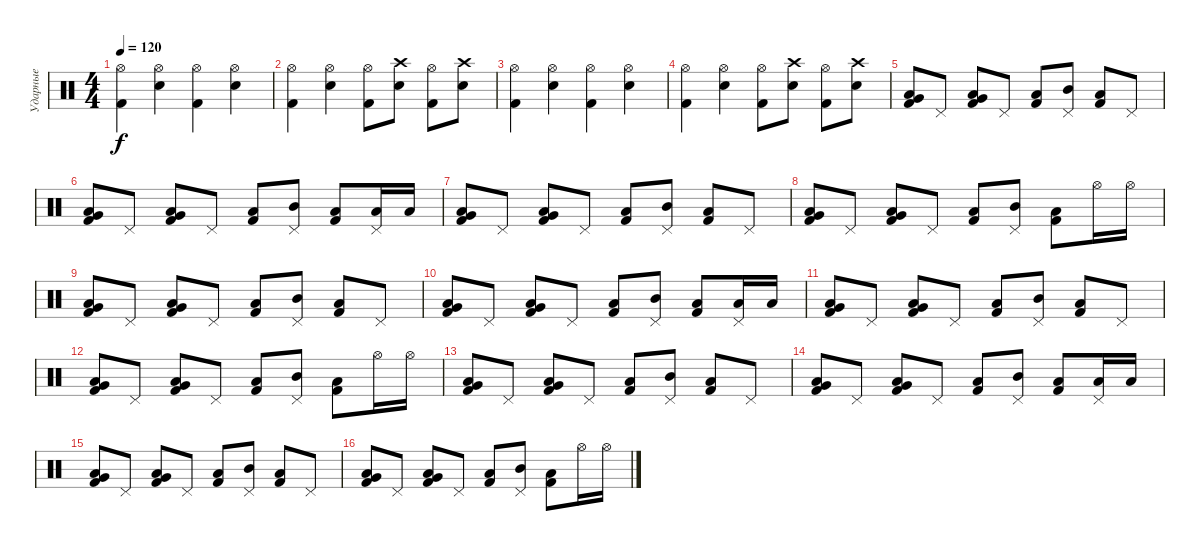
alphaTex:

\track ("Ударные" "Ударные") {instrument percussion}
\staff {score}
\articulation defaults
\ts (4 4)
\tempo 120
\clef neutral
\ks c
("Hi-Hat (open)" "Kick (hit) 2").4{dy f} ("Hi-Hat (open)" "Electric Snare (hit)").4 ("Hi-Hat (open)" "Kick (hit) 2").4 ("Hi-Hat (open)" "Electric Snare (hit)").4 |
("Hi-Hat (open)" "Kick (hit) 2").4 ("Hi-Hat (open)" "Electric Snare (hit)").4 ("Hi-Hat (open)" "Kick (hit) 2").8 ("Crash high (hit)" "Electric Snare (hit)").8 ("Hi-Hat (open)" "Kick (hit) 2").8 ("Crash high (hit)" "Electric Snare (hit)").8 |
("Hi-Hat (open)" "Kick (hit) 2").4 ("Hi-Hat (open)" "Electric Snare (hit)").4 ("Hi-Hat (open)" "Kick (hit) 2").4 ("Hi-Hat (open)" "Electric Snare (hit)").4 |
("Hi-Hat (open)" "Kick (hit) 2").4 ("Hi-Hat (open)" "Electric Snare (hit)").4 ("Hi-Hat (open)" "Kick (hit) 2").8 ("Crash high (hit)" "Electric Snare (hit)").8 ("Hi-Hat (open)" "Kick (hit) 2").8 ("Crash high (hit)" "Electric Snare (hit)").8 |
("Low Tom (hit)" "Very Low Tom (hit)" "Kick (hit) 2").8 "Pedal Hi-Hat (hit)".8 ("Low Tom (hit)" "Very Low Tom (hit)" "Kick (hit) 2").8 "Pedal Hi-Hat (hit)".8 ("Low Tom (hit)" "Kick (hit) 2").8 ("Pedal Hi-Hat (hit)" "Mid Tom (hit)").8 ("Low Tom (hit)" "Kick (hit) 2").8 "Pedal Hi-Hat (hit)".8 |
("Low Tom (hit)" "Very Low Tom (hit)" "Kick (hit) 2").8 "Pedal Hi-Hat (hit)".8 ("Low Tom (hit)" "Very Low Tom (hit)" "Kick (hit) 2").8 "Pedal Hi-Hat (hit)".8 ("Low Tom (hit)" "Kick (hit) 2").8 ("Pedal Hi-Hat (hit)" "Mid Tom (hit)").8 ("Low Tom (hit)" "Kick (hit) 2").8 ("Pedal Hi-Hat (hit)" "Low Tom (hit)").16 "Low Tom (hit)".16 |
("Low Tom (hit)" "Very Low Tom (hit)" "Kick (hit) 2").8 "Pedal Hi-Hat (hit)".8 ("Low Tom (hit)" "Very Low Tom (hit)" "Kick (hit) 2").8 "Pedal Hi-Hat (hit)".8 ("Low Tom (hit)" "Kick (hit) 2").8 ("Pedal Hi-Hat (hit)" "Mid Tom (hit)").8 ("Low Tom (hit)" "Kick (hit) 2").8 "Pedal Hi-Hat (hit)".8 |
("Low Tom (hit)" "Very Low Tom (hit)" "Kick (hit) 2").8 "Pedal Hi-Hat (hit)".8 ("Low Tom (hit)" "Very Low Tom (hit)" "Kick (hit) 2").8 "Pedal Hi-Hat (hit)".8 ("Low Tom (hit)" "Kick (hit) 2").8 ("Pedal Hi-Hat (hit)" "Mid Tom (hit)").8 ("Low Tom (hit)" "Kick (hit) 2").8 "Hi-Hat (open)".16 "Hi-Hat (open)".16 |
("Low Tom (hit)" "Very Low Tom (hit)" "Kick (hit) 2").8 "Pedal Hi-Hat (hit)".8 ("Low Tom (hit)" "Very Low Tom (hit)" "Kick (hit) 2").8 "Pedal Hi-Hat (hit)".8 ("Low Tom (hit)" "Kick (hit) 2").8 ("Pedal Hi-Hat (hit)" "Mid Tom (hit)").8 ("Low Tom (hit)" "Kick (hit) 2").8 "Pedal Hi-Hat (hit)".8 |
("Low Tom (hit)" "Very Low Tom (hit)" "Kick (hit) 2").8 "Pedal Hi-Hat (hit)".8 ("Low Tom (hit)" "Very Low Tom (hit)" "Kick (hit) 2").8 "Pedal Hi-Hat (hit)".8 ("Low Tom (hit)" "Kick (hit) 2").8 ("Pedal Hi-Hat (hit)" "Mid Tom (hit)").8 ("Low Tom (hit)" "Kick (hit) 2").8 ("Pedal Hi-Hat (hit)" "Low Tom (hit)").16 "Low Tom (hit)".16 |
("Low Tom (hit)" "Very Low Tom (hit)" "Kick (hit) 2").8 "Pedal Hi-Hat (hit)".8 ("Low Tom (hit)" "Very Low Tom (hit)" "Kick (hit) 2").8 "Pedal Hi-Hat (hit)".8 ("Low Tom (hit)" "Kick (hit) 2").8 ("Pedal Hi-Hat (hit)" "Mid Tom (hit)").8 ("Low Tom (hit)" "Kick (hit) 2").8 "Pedal Hi-Hat (hit)".8 |
("Low Tom (hit)" "Very Low Tom (hit)" "Kick (hit) 2").8 "Pedal Hi-Hat (hit)".8 ("Low Tom (hit)" "Very Low Tom (hit)" "Kick (hit) 2").8 "Pedal Hi-Hat (hit)".8 ("Low Tom (hit)" "Kick (hit) 2").8 ("Pedal Hi-Hat (hit)" "Mid Tom (hit)").8 ("Low Tom (hit)" "Kick (hit) 2").8 "Hi-Hat (open)".16 "Hi-Hat (open)".16 |
("Low Tom (hit)" "Very Low Tom (hit)" "Kick (hit) 2").8 "Pedal Hi-Hat (hit)".8 ("Low Tom (hit)" "Very Low Tom (hit)" "Kick (hit) 2").8 "Pedal Hi-Hat (hit)".8 ("Low Tom (hit)" "Kick (hit) 2").8 ("Pedal Hi-Hat (hit)" "Mid Tom (hit)").8 ("Low Tom (hit)" "Kick (hit) 2").8 "Pedal Hi-Hat (hit)".8 |
("Low Tom (hit)" "Very Low Tom (hit)" "Kick (hit) 2").8 "Pedal Hi-Hat (hit)".8 ("Low Tom (hit)" "Very Low Tom (hit)" "Kick (hit) 2").8 "Pedal Hi-Hat (hit)".8 ("Low Tom (hit)" "Kick (hit) 2").8 ("Pedal Hi-Hat (hit)" "Mid Tom (hit)").8 ("Low Tom (hit)" "Kick (hit) 2").8 ("Pedal Hi-Hat (hit)" "Low Tom (hit)").16 "Low Tom (hit)".16 |
("Low Tom (hit)" "Very Low Tom (hit)" "Kick (hit) 2").8 "Pedal Hi-Hat (hit)".8 ("Low Tom (hit)" "Very Low Tom (hit)" "Kick (hit) 2").8 "Pedal Hi-Hat (hit)".8 ("Low Tom (hit)" "Kick (hit) 2").8 ("Pedal Hi-Hat (hit)" "Mid Tom (hit)").8 ("Low Tom (hit)" "Kick (hit) 2").8 "Pedal Hi-Hat (hit)".8 |
("Low Tom (hit)" "Very Low Tom (hit)" "Kick (hit) 2").8 "Pedal Hi-Hat (hit)".8 ("Low Tom (hit)" "Very Low Tom (hit)" "Kick (hit) 2").8 "Pedal Hi-Hat (hit)".8 ("Low Tom (hit)" "Kick (hit) 2").8 ("Pedal Hi-Hat (hit)" "Mid Tom (hit)").8 ("Low Tom (hit)" "Kick (hit) 2").8 "Hi-Hat (open)".16 "Hi-Hat (open)".16
